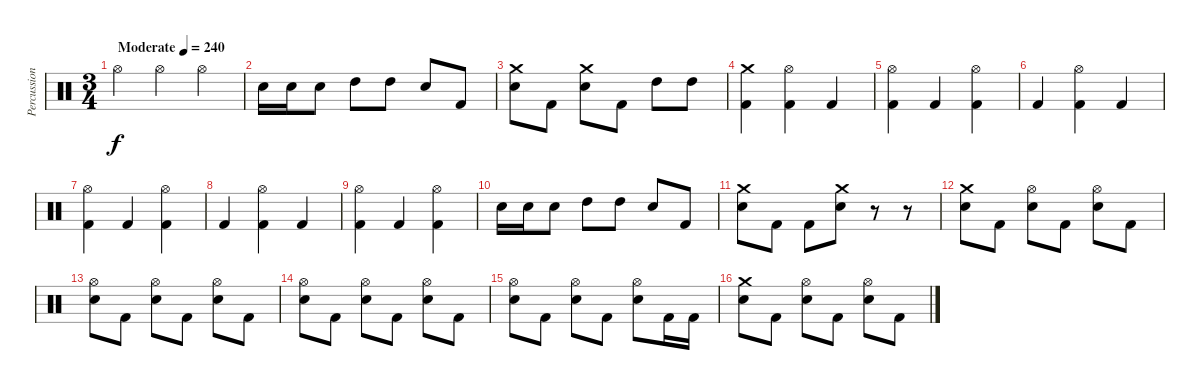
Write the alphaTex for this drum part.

\track ("Percussion" "Percussion") {instrument percussion}
\staff {score}
\articulation defaults
\ts (3 4)
\tempo (240 "Moderate")
\clef neutral
\ks c "Hi-Hat (open)".4{dy f} "Hi-Hat (open)".4 "Hi-Hat (open)".4
|
"Electric Snare (hit)".16 "Electric Snare (hit)".16 "Electric Snare (hit)".8 "High Tom (hit)".8 "High Tom (hit)".8 "Electric Snare (hit)".8 "Kick (hit) 2".8 |
("Crash medium (hit)" "Electric Snare (hit)").8 "Kick (hit) 2".8 ("Crash medium (hit)" "Electric Snare (hit)").8 "Kick (hit) 2".8 "High Tom (hit)".8 "High Tom (hit)".8 |
("Crash medium (hit)" "Kick (hit) 2").4 ("Hi-Hat (open)" "Kick (hit) 2").4 "Kick (hit) 2".4 |
("Hi-Hat (open)" "Kick (hit) 2").4 "Kick (hit) 2".4 ("Hi-Hat (open)" "Kick (hit) 2").4 |
"Kick (hit) 2".4 ("Hi-Hat (open)" "Kick (hit) 2").4 "Kick (hit) 2".4 |
("Hi-Hat (open)" "Kick (hit) 2").4 "Kick (hit) 2".4 ("Hi-Hat (open)" "Kick (hit) 2").4 |
"Kick (hit) 2".4 ("Hi-Hat (open)" "Kick (hit) 2").4 "Kick (hit) 2".4 |
("Hi-Hat (open)" "Kick (hit) 2").4 "Kick (hit) 2".4 ("Hi-Hat (open)" "Kick (hit) 2").4 |
"Electric Snare (hit)".16 "Electric Snare (hit)".16 "Electric Snare (hit)".8 "High Tom (hit)".8 "High Tom (hit)".8 "Electric Snare (hit)".8 "Kick (hit) 2".8 |
("Crash medium (hit)" "Electric Snare (hit)").8 "Kick (hit) 2".8 "Kick (hit) 2".8 ("Crash medium (hit)" "Electric Snare (hit)").8 r.8 r.8 |
("Crash medium (hit)" "Electric Snare (hit)").8 "Kick (hit) 2".8 ("Hi-Hat (open)" "Electric Snare (hit)").8 "Kick (hit) 2".8 ("Hi-Hat (open)" "Electric Snare (hit)").8 "Kick (hit) 2".8 |
("Hi-Hat (open)" "Electric Snare (hit)").8 "Kick (hit) 2".8 ("Hi-Hat (open)" "Electric Snare (hit)").8 "Kick (hit) 2".8 ("Hi-Hat (open)" "Electric Snare (hit)").8 "Kick (hit) 2".8 |
("Hi-Hat (open)" "Electric Snare (hit)").8 "Kick (hit) 2".8 ("Hi-Hat (open)" "Electric Snare (hit)").8 "Kick (hit) 2".8 ("Hi-Hat (open)" "Electric Snare (hit)").8 "Kick (hit) 2".8 |
("Hi-Hat (open)" "Electric Snare (hit)").8 "Kick (hit) 2".8 ("Hi-Hat (open)" "Electric Snare (hit)").8 "Kick (hit) 2".8 ("Hi-Hat (open)" "Electric Snare (hit)").8 "Kick (hit) 2".16 "Kick (hit) 2".16 |
("Crash medium (hit)" "Electric Snare (hit)").8 "Kick (hit) 2".8 ("Hi-Hat (open)" "Electric Snare (hit)").8 "Kick (hit) 2".8 ("Hi-Hat (open)" "Electric Snare (hit)").8 "Kick (hit) 2".8
